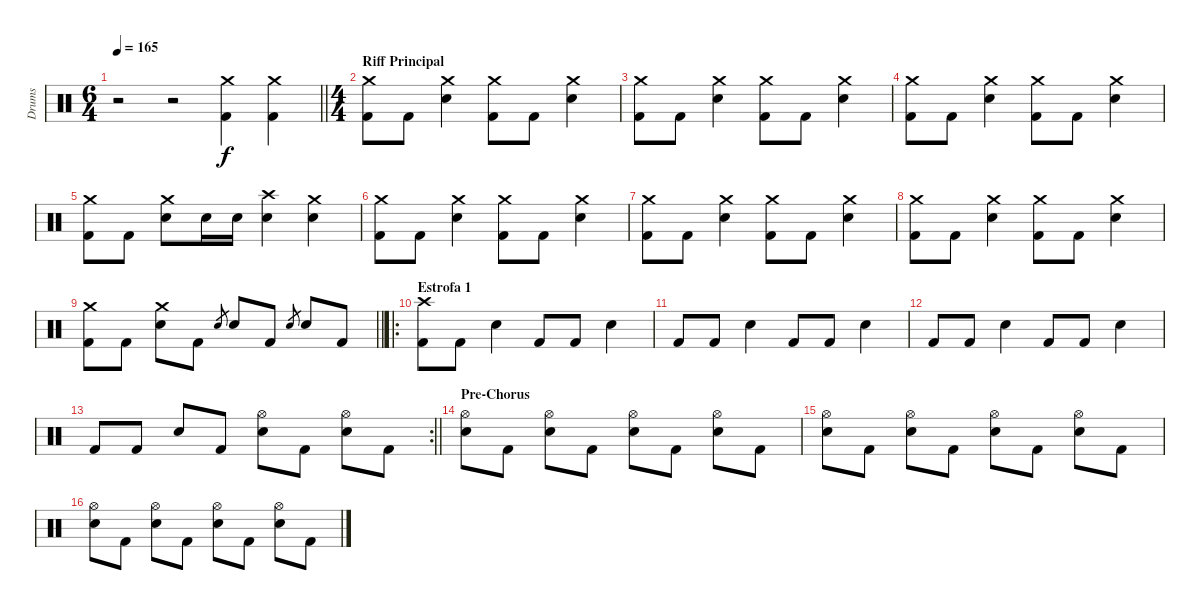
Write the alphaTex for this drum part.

\track ("Drums" "Drums") {instrument percussion}
\staff {score}
\articulation defaults
\ts (6 4)
\tempo 165
\clef neutral
\barLineRight lightlight
\ks c
r.2{dy f} r.2 ("Crash medium (hit)" "Kick (hit) 2").4 ("Crash medium (hit)" "Kick (hit) 2").4 |
\ts (4 4)
\section ("" "Riff Principal")
("Crash medium (hit)" "Kick (hit) 2").8 "Kick (hit) 2".8 ("Crash medium (hit)" "Electric Snare (hit)").4 ("Crash medium (hit)" "Kick (hit) 2").8 "Kick (hit) 2".8 ("Crash medium (hit)" "Electric Snare (hit)").4 |
("Crash medium (hit)" "Kick (hit) 2").8 "Kick (hit) 2".8 ("Crash medium (hit)" "Electric Snare (hit)").4 ("Crash medium (hit)" "Kick (hit) 2").8 "Kick (hit) 2".8 ("Crash medium (hit)" "Electric Snare (hit)").4 |
("Crash medium (hit)" "Kick (hit) 2").8 "Kick (hit) 2".8 ("Crash medium (hit)" "Electric Snare (hit)").4 ("Crash medium (hit)" "Kick (hit) 2").8 "Kick (hit) 2".8 ("Crash medium (hit)" "Electric Snare (hit)").4 |
("Crash medium (hit)" "Kick (hit) 2").8 "Kick (hit) 2".8 ("Crash medium (hit)" "Electric Snare (hit)").8 "Electric Snare (hit)".16 "Electric Snare (hit)".16 ("Crash high (hit)" "Electric Snare (hit)").4 ("Crash medium (hit)" "Electric Snare (hit)").4 |
("Crash medium (hit)" "Kick (hit) 2").8 "Kick (hit) 2".8 ("Crash medium (hit)" "Electric Snare (hit)").4 ("Crash medium (hit)" "Kick (hit) 2").8 "Kick (hit) 2".8 ("Crash medium (hit)" "Electric Snare (hit)").4 |
("Crash medium (hit)" "Kick (hit) 2").8 "Kick (hit) 2".8 ("Crash medium (hit)" "Electric Snare (hit)").4 ("Crash medium (hit)" "Kick (hit) 2").8 "Kick (hit) 2".8 ("Crash medium (hit)" "Electric Snare (hit)").4 |
("Crash medium (hit)" "Kick (hit) 2").8 "Kick (hit) 2".8 ("Crash medium (hit)" "Electric Snare (hit)").4 ("Crash medium (hit)" "Kick (hit) 2").8 "Kick (hit) 2".8 ("Crash medium (hit)" "Electric Snare (hit)").4 |
\barLineRight lightlight
("Crash medium (hit)" "Kick (hit) 2").8 "Kick (hit) 2".8 ("Crash medium (hit)" "Electric Snare (hit)").8 "Kick (hit) 2".8 "Electric Snare (hit)".8{gr} "Electric Snare (hit)".8 "Kick (hit) 2".8 "Electric Snare (hit)".8{gr} "Electric Snare (hit)".8 "Kick (hit) 2".8 |
\ro
\section ("" "Estrofa 1")
("Crash high (hit)" "Kick (hit) 2").8 "Kick (hit) 2".8 "Electric Snare (hit)".4 "Kick (hit) 2".8 "Kick (hit) 2".8 "Electric Snare (hit)".4 |
"Kick (hit) 2".8 "Kick (hit) 2".8 "Electric Snare (hit)".4 "Kick (hit) 2".8 "Kick (hit) 2".8 "Electric Snare (hit)".4 |
"Kick (hit) 2".8 "Kick (hit) 2".8 "Electric Snare (hit)".4 "Kick (hit) 2".8 "Kick (hit) 2".8 "Electric Snare (hit)".4 |
\rc 2
\barLineRight lightlight "Kick (hit) 2".8 "Kick (hit) 2".8 "Electric Snare (hit)".8 "Kick (hit) 2".8
("Hi-Hat (open)" "Electric Snare (hit)").8 "Kick (hit) 2".8 ("Hi-Hat (open)" "Electric Snare (hit)").8 "Kick (hit) 2".8 |
\section ("" "Pre-Chorus")
("Hi-Hat (open)" "Electric Snare (hit)").8 "Kick (hit) 2".8 ("Hi-Hat (open)" "Electric Snare (hit)").8 "Kick (hit) 2".8 ("Hi-Hat (open)" "Electric Snare (hit)").8 "Kick (hit) 2".8 ("Hi-Hat (open)" "Electric Snare (hit)").8 "Kick (hit) 2".8 |
("Hi-Hat (open)" "Electric Snare (hit)").8 "Kick (hit) 2".8 ("Hi-Hat (open)" "Electric Snare (hit)").8 "Kick (hit) 2".8 ("Hi-Hat (open)" "Electric Snare (hit)").8 "Kick (hit) 2".8 ("Hi-Hat (open)" "Electric Snare (hit)").8 "Kick (hit) 2".8 |
("Hi-Hat (open)" "Electric Snare (hit)").8 "Kick (hit) 2".8 ("Hi-Hat (open)" "Electric Snare (hit)").8 "Kick (hit) 2".8 ("Hi-Hat (open)" "Electric Snare (hit)").8 "Kick (hit) 2".8 ("Hi-Hat (open)" "Electric Snare (hit)").8 "Kick (hit) 2".8
